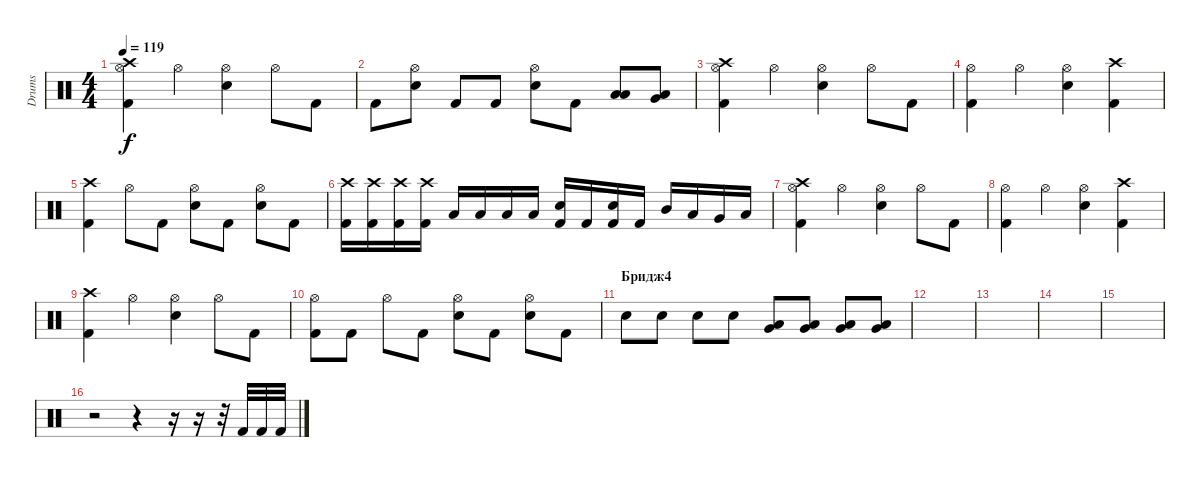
\track ("Drums" "Drums") {instrument percussion}
\staff {score}
\articulation defaults
\ts (4 4)
\tempo 119
\clef neutral
\ks c
("Kick (hit) 2" "Hi-Hat (open)" "Crash high (hit)").4{dy f} "Hi-Hat (open)".4 ("Electric Snare (hit)" "Hi-Hat (open)").4 "Hi-Hat (open)".8 "Kick (hit) 2".8 |
"Kick (hit) 2".8 ("Electric Snare (hit)" "Hi-Hat (open)").8 "Kick (hit) 2".8 "Kick (hit) 2".8 ("Electric Snare (hit)" "Hi-Hat (open)").8 "Kick (hit) 2".8 ("Low Tom (hit)" "Low Floor Tom (hit)").8 ("Very Low Tom (hit)" "Low Floor Tom (hit)").8 |
("Kick (hit) 2" "Hi-Hat (open)" "Crash high (hit)").4 "Hi-Hat (open)".4 ("Electric Snare (hit)" "Hi-Hat (open)").4 "Hi-Hat (open)".8 "Kick (hit) 2".8 |
("Kick (hit) 2" "Hi-Hat (open)").4 "Hi-Hat (open)".4 ("Electric Snare (hit)" "Hi-Hat (open)").4 ("Kick (hit) 2" "Crash high (hit)").4 |
("Kick (hit) 2" "Crash high (hit)").4 "Hi-Hat (open)".8 "Kick (hit) 2".8 ("Electric Snare (hit)" "Hi-Hat (open)").8 "Kick (hit) 2".8 ("Electric Snare (hit)" "Hi-Hat (open)").8 "Kick (hit) 2".8 |
("Kick (hit) 2" "Crash high (hit)").16 ("Kick (hit) 2" "Crash high (hit)").16 ("Kick (hit) 2" "Crash high (hit)").16 ("Kick (hit) 2" "Crash high (hit)").16 "Low Tom (hit)".16 "Low Tom (hit)".16 "Low Tom (hit)".16 "Low Tom (hit)".16 ("Kick (hit) 2" "Electric Snare (hit)").16 "Kick (hit) 2".16 ("Kick (hit) 2" "Electric Snare (hit)").16 "Kick (hit) 2".16 "Mid Tom (hit)".16 "Low Tom (hit)".16 "Very Low Tom (hit)".16 "Low Floor Tom (hit)".16 |
("Kick (hit) 2" "Hi-Hat (open)" "Crash high (hit)").4 "Hi-Hat (open)".4 ("Electric Snare (hit)" "Hi-Hat (open)").4 "Hi-Hat (open)".8 "Kick (hit) 2".8 |
("Kick (hit) 2" "Hi-Hat (open)").4 "Hi-Hat (open)".4 ("Electric Snare (hit)" "Hi-Hat (open)").4 ("Kick (hit) 2" "Crash high (hit)").4 |
("Kick (hit) 2" "Crash high (hit)").4 "Hi-Hat (open)".4 ("Electric Snare (hit)" "Hi-Hat (open)").4 "Hi-Hat (open)".8 "Kick (hit) 2".8 |
("Kick (hit) 2" "Hi-Hat (open)").8 "Kick (hit) 2".8 "Hi-Hat (open)".8 "Kick (hit) 2".8 ("Electric Snare (hit)" "Hi-Hat (open)").8 "Kick (hit) 2".8 ("Electric Snare (hit)" "Hi-Hat (open)").8 "Kick (hit) 2".8 |
\section ("" "Бридж4")
"Electric Snare (hit)".8 "Electric Snare (hit)".8 "Electric Snare (hit)".8 "Electric Snare (hit)".8 ("Low Floor Tom (hit)" "Very Low Tom (hit)").8 ("Low Floor Tom (hit)" "Very Low Tom (hit)").8 ("Low Floor Tom (hit)" "Very Low Tom (hit)").8 ("Low Floor Tom (hit)" "Very Low Tom (hit)").8 |
|
|
|
|
r.2 r.4 r.16 r.16 r.32 "Kick (hit) 2".32 "Kick (hit) 2".32 "Kick (hit) 2".32
